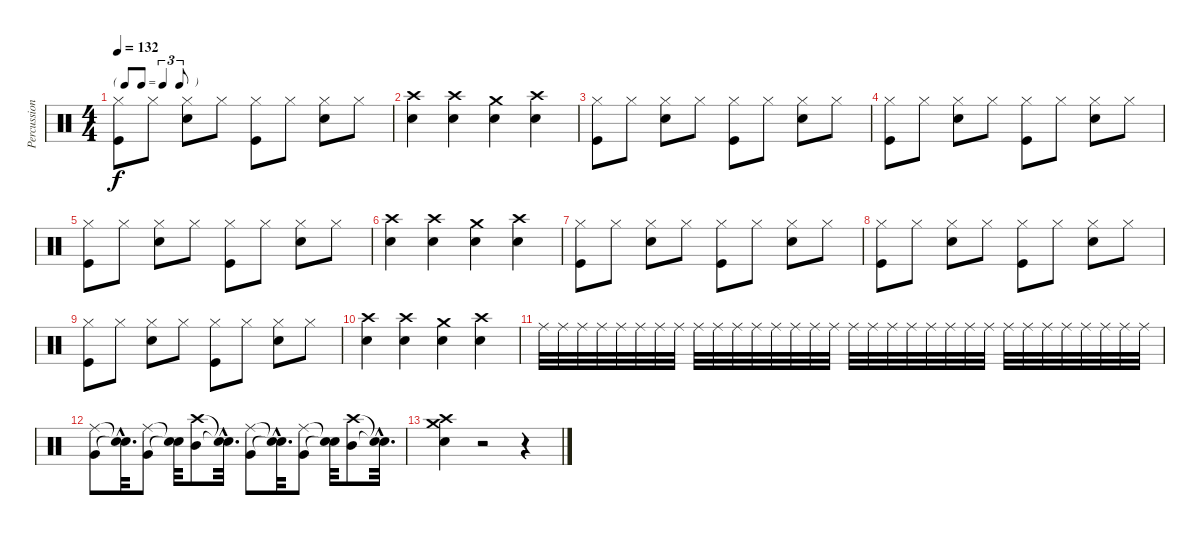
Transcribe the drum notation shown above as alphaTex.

\track ("Percussion" "Percussion") {instrument percussion}
\staff {score}
\articulation defaults
\ts (4 4)
\tf triplet8th
\tempo 132
\clef neutral
\ks c
("Hi-Hat (closed)" "Kick (hit)").8{dy f} "Hi-Hat (closed)".8 ("Hi-Hat (closed)" "Snare (hit) 2").8 "Hi-Hat (closed)".8 ("Hi-Hat (closed)" "Kick (hit)").8 "Hi-Hat (closed)".8 ("Hi-Hat (closed)" "Snare (hit) 2").8 "Hi-Hat (closed)".8 |
("Crash high (hit)" "Snare (hit) 2").4 ("Crash high (hit)" "Snare (hit) 2").4 ("Crash medium (hit)" "Snare (hit) 2").4 ("Crash high (hit)" "Snare (hit) 2").4 |
("Hi-Hat (closed)" "Kick (hit)").8 "Hi-Hat (closed)".8 ("Hi-Hat (closed)" "Snare (hit) 2").8 "Hi-Hat (closed)".8 ("Hi-Hat (closed)" "Kick (hit)").8 "Hi-Hat (closed)".8 ("Hi-Hat (closed)" "Snare (hit) 2").8 "Hi-Hat (closed)".8 |
("Hi-Hat (closed)" "Kick (hit)").8 "Hi-Hat (closed)".8 ("Hi-Hat (closed)" "Snare (hit) 2").8 "Hi-Hat (closed)".8 ("Hi-Hat (closed)" "Kick (hit)").8 "Hi-Hat (closed)".8 ("Hi-Hat (closed)" "Snare (hit) 2").8 "Hi-Hat (closed)".8 |
("Hi-Hat (closed)" "Kick (hit)").8 "Hi-Hat (closed)".8 ("Hi-Hat (closed)" "Snare (hit) 2").8 "Hi-Hat (closed)".8 ("Hi-Hat (closed)" "Kick (hit)").8 "Hi-Hat (closed)".8 ("Hi-Hat (closed)" "Snare (hit) 2").8 "Hi-Hat (closed)".8 |
("Crash high (hit)" "Snare (hit) 2").4 ("Crash high (hit)" "Snare (hit) 2").4 ("Crash medium (hit)" "Snare (hit) 2").4 ("Crash high (hit)" "Snare (hit) 2").4 |
("Hi-Hat (closed)" "Kick (hit)").8 "Hi-Hat (closed)".8 ("Hi-Hat (closed)" "Snare (hit) 2").8 "Hi-Hat (closed)".8 ("Hi-Hat (closed)" "Kick (hit)").8 "Hi-Hat (closed)".8 ("Hi-Hat (closed)" "Snare (hit) 2").8 "Hi-Hat (closed)".8 |
("Hi-Hat (closed)" "Kick (hit)").8 "Hi-Hat (closed)".8 ("Hi-Hat (closed)" "Snare (hit) 2").8 "Hi-Hat (closed)".8 ("Hi-Hat (closed)" "Kick (hit)").8 "Hi-Hat (closed)".8 ("Hi-Hat (closed)" "Snare (hit) 2").8 "Hi-Hat (closed)".8 |
("Hi-Hat (closed)" "Kick (hit)").8 "Hi-Hat (closed)".8 ("Hi-Hat (closed)" "Snare (hit) 2").8 "Hi-Hat (closed)".8 ("Hi-Hat (closed)" "Kick (hit)").8 "Hi-Hat (closed)".8 ("Hi-Hat (closed)" "Snare (hit) 2").8 "Hi-Hat (closed)".8 |
("Crash high (hit)" "Snare (hit) 2").4 ("Crash high (hit)" "Snare (hit) 2").4 ("Crash medium (hit)" "Snare (hit) 2").4 ("Crash high (hit)" "Snare (hit) 2").4 |
"Ride (middle)".32 "Ride (middle)".32 "Ride (middle)".32 "Ride (middle)".32 "Ride (middle)".32 "Ride (middle)".32 "Ride (middle)".32 "Ride (middle)".32 "Ride (middle)".32 "Ride (middle)".32 "Ride (middle)".32 "Ride (middle)".32 "Ride (middle)".32 "Ride (middle)".32 "Ride (middle)".32 "Ride (middle)".32 "Ride (middle)".32 "Ride (middle)".32 "Ride (middle)".32 "Ride (middle)".32 "Ride (middle)".32 "Ride (middle)".32 "Ride (middle)".32 "Ride (middle)".32 "Ride (middle)".32 "Ride (middle)".32 "Ride (middle)".32 "Ride (middle)".32 "Ride (middle)".32 "Ride (middle)".32 "Ride (middle)".32 "Ride (middle)".32 |
("Very Low Tom (hit)" "Ride (middle)").8 ("Snare (hit)"{hac t} "Snare (hit)"{hac t}).32{d} ("Very Low Tom (hit)" "Ride (middle)").8 ("Snare (hit)"{t} "Snare (hit)"{t}).32 ("Mid Tom (hit)" "Crash high (hit)").8 ("Snare (hit)"{hac t} "Snare (hit)"{hac t}).32{d} ("Very Low Tom (hit)" "Ride (middle)").8 ("Snare (hit)"{hac t} "Snare (hit)"{hac t}).32{d} ("Very Low Tom (hit)" "Ride (middle)").8 ("Snare (hit)"{t} "Snare (hit)"{t}).32 ("Mid Tom (hit)" "Crash high (hit)").8 ("Snare (hit)"{hac t} "Snare (hit)"{hac t}).32{d} |
("Crash medium (hit)" "Crash high (hit)" "Electric Snare (hit)").4 r.2 r.4
